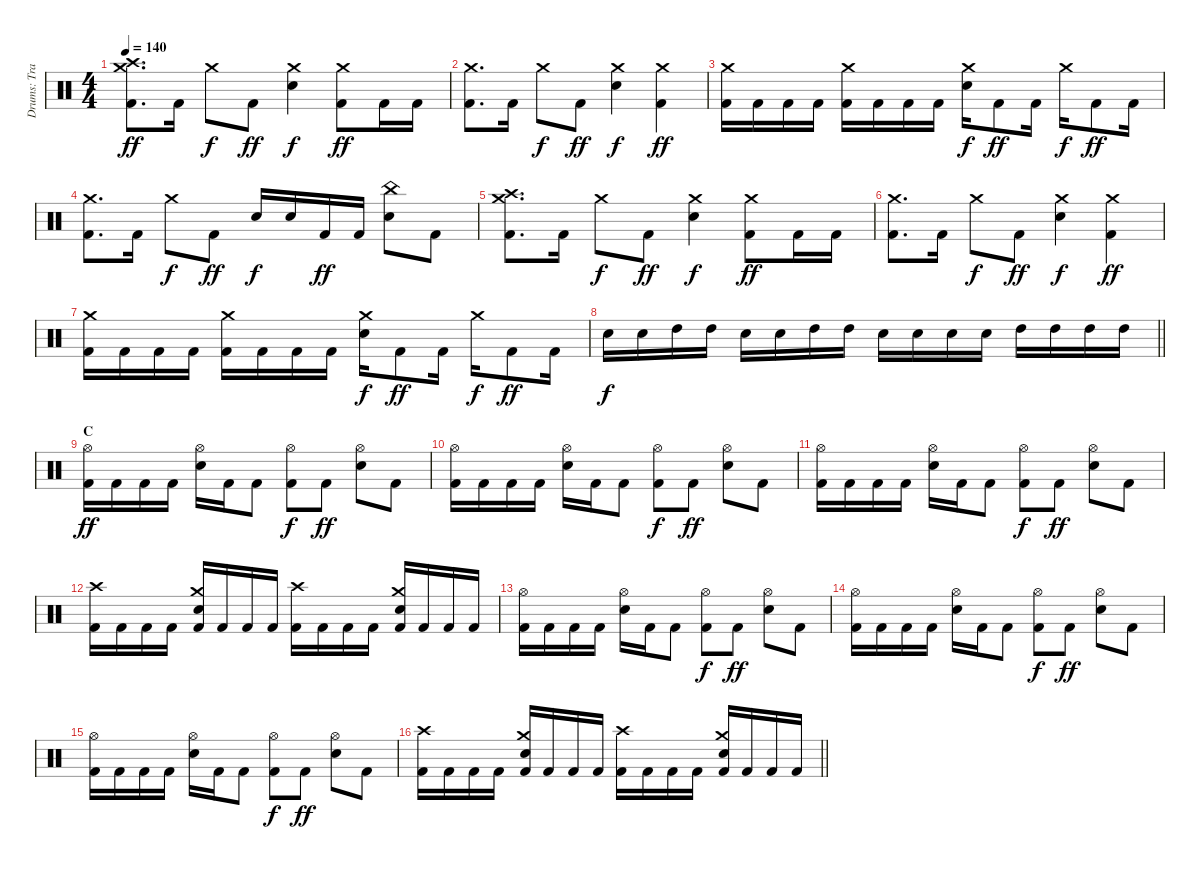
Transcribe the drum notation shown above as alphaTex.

\track ("Drums: Travis Clarke" "Drums: Tra") {instrument percussion}
\staff {score}
\articulation defaults
\ts (4 4)
\tempo 140
\clef neutral
\ks c
("Kick (hit) 2" "Crash high (hit)" "Crash medium (hit)").8{d dy ff} "Kick (hit) 2".16 "Crash medium (hit)".8{dy f} "Kick (hit) 2".8{dy ff} ("Snare (hit) 2" "Crash medium (hit)").4{dy f} ("Kick (hit) 2" "Crash medium (hit)").8{dy ff} "Kick (hit) 2".16 "Kick (hit) 2".16 |
("Kick (hit) 2" "Crash medium (hit)").8{d} "Kick (hit) 2".16 "Crash medium (hit)".8{dy f} "Kick (hit) 2".8{dy ff} ("Snare (hit) 2" "Crash medium (hit)").4{dy f} ("Kick (hit) 2" "Crash medium (hit)").4{dy ff} |
("Kick (hit) 2" "Crash medium (hit)").16 "Kick (hit) 2".16 "Kick (hit) 2".16 "Kick (hit) 2".16 ("Kick (hit) 2" "Crash medium (hit)").16 "Kick (hit) 2".16 "Kick (hit) 2".16 "Kick (hit) 2".16 ("Snare (hit) 2" "Crash medium (hit)").16{dy f} "Kick (hit) 2".8{dy ff} "Kick (hit) 2".16 "Crash medium (hit)".16{dy f} "Kick (hit) 2".8{dy ff} "Kick (hit) 2".16 |
("Kick (hit) 2" "Crash medium (hit)").8{d} "Kick (hit) 2".16 "Crash medium (hit)".8{dy f} "Kick (hit) 2".8{dy ff} "Snare (hit) 2".16{dy f} "Snare (hit) 2".16 "Kick (hit) 2".16{dy ff} "Kick (hit) 2".16 ("Snare (hit) 2" "China (hit)").8 "Kick (hit) 2".8 |
("Kick (hit) 2" "Crash high (hit)" "Crash medium (hit)").8{d} "Kick (hit) 2".16 "Crash medium (hit)".8{dy f} "Kick (hit) 2".8{dy ff} ("Snare (hit) 2" "Crash medium (hit)").4{dy f} ("Kick (hit) 2" "Crash medium (hit)").8{dy ff} "Kick (hit) 2".16 "Kick (hit) 2".16 |
("Kick (hit) 2" "Crash medium (hit)").8{d} "Kick (hit) 2".16 "Crash medium (hit)".8{dy f} "Kick (hit) 2".8{dy ff} ("Snare (hit) 2" "Crash medium (hit)").4{dy f} ("Kick (hit) 2" "Crash medium (hit)").4{dy ff} |
("Kick (hit) 2" "Crash medium (hit)").16 "Kick (hit) 2".16 "Kick (hit) 2".16 "Kick (hit) 2".16 ("Kick (hit) 2" "Crash medium (hit)").16 "Kick (hit) 2".16 "Kick (hit) 2".16 "Kick (hit) 2".16 ("Snare (hit) 2" "Crash medium (hit)").16{dy f} "Kick (hit) 2".8{dy ff} "Kick (hit) 2".16 "Crash medium (hit)".16{dy f} "Kick (hit) 2".8{dy ff} "Kick (hit) 2".16 |
\barLineRight lightlight "Snare (hit) 2".16{dy f} "Snare (hit) 2".16 "High Tom (hit)".16 "High Tom (hit)".16 "Snare (hit) 2".16 "Snare (hit) 2".16 "High Tom (hit)".16 "High Tom (hit)".16 "Snare (hit) 2".16 "Snare (hit) 2".16 "Snare (hit) 2".16 "Snare (hit) 2".16 "High Tom (hit)".16 "High Tom (hit)".16 "High Tom (hit)".16 "High Tom (hit)".16
|
\section ("" "C")
("Kick (hit) 2" "Hi-Hat (open)").16{dy ff} "Kick (hit) 2".16 "Kick (hit) 2".16 "Kick (hit) 2".16 ("Snare (hit) 2" "Hi-Hat (open)").16 "Kick (hit) 2".16 "Kick (hit) 2".8 ("Kick (hit) 2" "Hi-Hat (open)").8{dy f} "Kick (hit) 2".8{dy ff} ("Snare (hit) 2" "Hi-Hat (open)").8 "Kick (hit) 2".8 |
("Kick (hit) 2" "Hi-Hat (open)").16 "Kick (hit) 2".16 "Kick (hit) 2".16 "Kick (hit) 2".16 ("Snare (hit) 2" "Hi-Hat (open)").16 "Kick (hit) 2".16 "Kick (hit) 2".8 ("Kick (hit) 2" "Hi-Hat (open)").8{dy f} "Kick (hit) 2".8{dy ff} ("Snare (hit) 2" "Hi-Hat (open)").8 "Kick (hit) 2".8 |
("Kick (hit) 2" "Hi-Hat (open)").16 "Kick (hit) 2".16 "Kick (hit) 2".16 "Kick (hit) 2".16 ("Snare (hit) 2" "Hi-Hat (open)").16 "Kick (hit) 2".16 "Kick (hit) 2".8 ("Kick (hit) 2" "Hi-Hat (open)").8{dy f} "Kick (hit) 2".8{dy ff} ("Snare (hit) 2" "Hi-Hat (open)").8 "Kick (hit) 2".8 |
("Kick (hit) 2" "Crash high (hit)").16 "Kick (hit) 2".16 "Kick (hit) 2".16 "Kick (hit) 2".16 ("Kick (hit) 2" "Snare (hit) 2" "Crash medium (hit)").16 "Kick (hit) 2".16 "Kick (hit) 2".16 "Kick (hit) 2".16 ("Kick (hit) 2" "Crash high (hit)").16 "Kick (hit) 2".16 "Kick (hit) 2".16 "Kick (hit) 2".16 ("Kick (hit) 2" "Snare (hit) 2" "Crash medium (hit)").16 "Kick (hit) 2".16 "Kick (hit) 2".16 "Kick (hit) 2".16 |
("Kick (hit) 2" "Hi-Hat (open)").16 "Kick (hit) 2".16 "Kick (hit) 2".16 "Kick (hit) 2".16 ("Snare (hit) 2" "Hi-Hat (open)").16 "Kick (hit) 2".16 "Kick (hit) 2".8 ("Kick (hit) 2" "Hi-Hat (open)").8{dy f} "Kick (hit) 2".8{dy ff} ("Snare (hit) 2" "Hi-Hat (open)").8 "Kick (hit) 2".8 |
("Kick (hit) 2" "Hi-Hat (open)").16 "Kick (hit) 2".16 "Kick (hit) 2".16 "Kick (hit) 2".16 ("Snare (hit) 2" "Hi-Hat (open)").16 "Kick (hit) 2".16 "Kick (hit) 2".8 ("Kick (hit) 2" "Hi-Hat (open)").8{dy f} "Kick (hit) 2".8{dy ff} ("Snare (hit) 2" "Hi-Hat (open)").8 "Kick (hit) 2".8 |
("Kick (hit) 2" "Hi-Hat (open)").16 "Kick (hit) 2".16 "Kick (hit) 2".16 "Kick (hit) 2".16 ("Snare (hit) 2" "Hi-Hat (open)").16 "Kick (hit) 2".16 "Kick (hit) 2".8 ("Kick (hit) 2" "Hi-Hat (open)").8{dy f} "Kick (hit) 2".8{dy ff} ("Snare (hit) 2" "Hi-Hat (open)").8 "Kick (hit) 2".8 |
\barLineRight lightlight
("Kick (hit) 2" "Crash high (hit)").16 "Kick (hit) 2".16 "Kick (hit) 2".16 "Kick (hit) 2".16 ("Kick (hit) 2" "Snare (hit) 2" "Crash medium (hit)").16 "Kick (hit) 2".16 "Kick (hit) 2".16 "Kick (hit) 2".16 ("Kick (hit) 2" "Crash high (hit)").16 "Kick (hit) 2".16 "Kick (hit) 2".16 "Kick (hit) 2".16 ("Kick (hit) 2" "Snare (hit) 2" "Crash medium (hit)").16 "Kick (hit) 2".16 "Kick (hit) 2".16 "Kick (hit) 2".16
